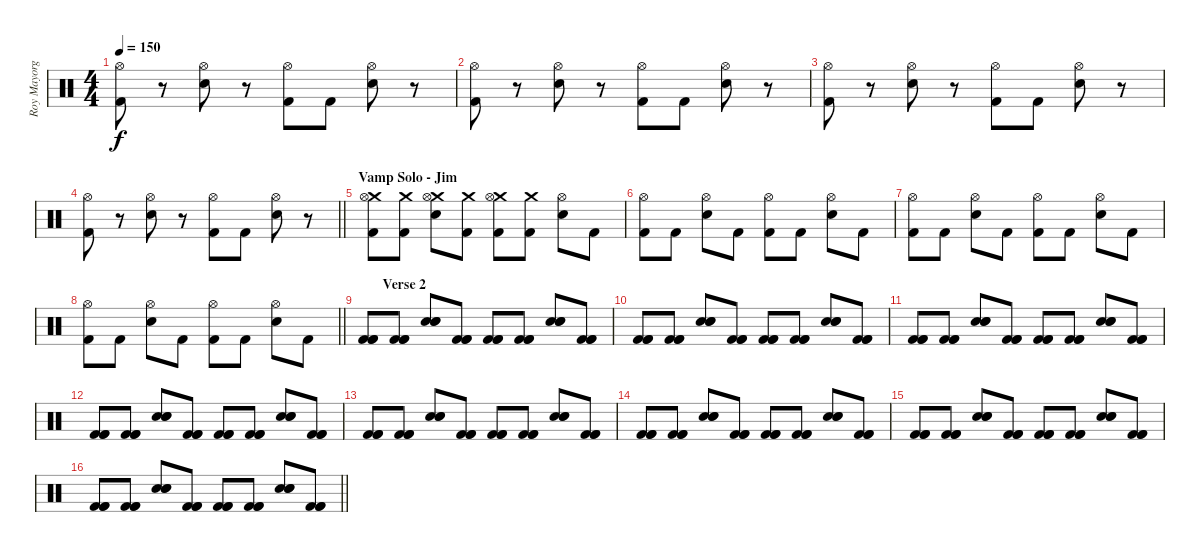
\track ("Roy Mayorga" "Roy Mayorg") {instrument percussion}
\staff {score}
\articulation defaults
\ts (4 4)
\tempo 150
\clef neutral
\ks c
("Hi-Hat (open)" "Kick (hit) 2").8{dy f} r.8 ("Hi-Hat (open)" "Electric Snare (hit)").8 r.8 ("Hi-Hat (open)" "Kick (hit) 2").8 "Kick (hit) 2".8 ("Hi-Hat (open)" "Electric Snare (hit)").8 r.8 |
("Hi-Hat (open)" "Kick (hit) 2").8 r.8 ("Hi-Hat (open)" "Electric Snare (hit)").8 r.8 ("Hi-Hat (open)" "Kick (hit) 2").8 "Kick (hit) 2".8 ("Hi-Hat (open)" "Electric Snare (hit)").8 r.8 |
("Hi-Hat (open)" "Kick (hit) 2").8 r.8 ("Hi-Hat (open)" "Electric Snare (hit)").8 r.8 ("Hi-Hat (open)" "Kick (hit) 2").8 "Kick (hit) 2".8 ("Hi-Hat (open)" "Electric Snare (hit)").8 r.8 |
\barLineRight lightlight
("Hi-Hat (open)" "Kick (hit) 2").8 r.8 ("Hi-Hat (open)" "Electric Snare (hit)").8 r.8 ("Hi-Hat (open)" "Kick (hit) 2").8 "Kick (hit) 2".8 ("Hi-Hat (open)" "Electric Snare (hit)").8 r.8 |
\section ("" "Vamp Solo - Jim")
("Crash medium (hit)" "Hi-Hat (open)" "Kick (hit) 2").8 ("Crash medium (hit)" "Kick (hit) 2").8 ("Crash medium (hit)" "Hi-Hat (open)" "Electric Snare (hit)").8 ("Crash medium (hit)" "Kick (hit) 2").8 ("Crash medium (hit)" "Hi-Hat (open)" "Kick (hit) 2").8 ("Crash medium (hit)" "Kick (hit) 2").8 ("Hi-Hat (open)" "Electric Snare (hit)").8 "Kick (hit) 2".8 |
("Hi-Hat (open)" "Kick (hit) 2").8 "Kick (hit) 2".8 ("Hi-Hat (open)" "Electric Snare (hit)").8 "Kick (hit) 2".8 ("Hi-Hat (open)" "Kick (hit) 2").8 "Kick (hit) 2".8 ("Hi-Hat (open)" "Electric Snare (hit)").8 "Kick (hit) 2".8 |
("Hi-Hat (open)" "Kick (hit) 2").8 "Kick (hit) 2".8 ("Hi-Hat (open)" "Electric Snare (hit)").8 "Kick (hit) 2".8 ("Hi-Hat (open)" "Kick (hit) 2").8 "Kick (hit) 2".8 ("Hi-Hat (open)" "Electric Snare (hit)").8 "Kick (hit) 2".8 |
\barLineRight lightlight
("Hi-Hat (open)" "Kick (hit) 2").8 "Kick (hit) 2".8 ("Hi-Hat (open)" "Electric Snare (hit)").8 "Kick (hit) 2".8 ("Hi-Hat (open)" "Kick (hit) 2").8 "Kick (hit) 2".8 ("Hi-Hat (open)" "Electric Snare (hit)").8 "Kick (hit) 2".8 |
\section ("" "       Verse 2")
("Kick (hit) 2" "Kick (hit) 2" "Kick (hit) 2").8 ("Kick (hit) 2" "Kick (hit) 2" "Kick (hit) 2").8 ("Snare (hit) 2" "Snare (hit) 2" "Snare (hit) 2").8 ("Kick (hit) 2" "Kick (hit) 2" "Kick (hit) 2").8 ("Kick (hit) 2" "Kick (hit) 2" "Kick (hit) 2").8 ("Kick (hit) 2" "Kick (hit) 2" "Kick (hit) 2").8 ("Snare (hit) 2" "Snare (hit) 2" "Snare (hit) 2").8 ("Kick (hit) 2" "Kick (hit) 2" "Kick (hit) 2").8 |
("Kick (hit) 2" "Kick (hit) 2" "Kick (hit) 2").8 ("Kick (hit) 2" "Kick (hit) 2" "Kick (hit) 2").8 ("Snare (hit) 2" "Snare (hit) 2" "Snare (hit) 2").8 ("Kick (hit) 2" "Kick (hit) 2" "Kick (hit) 2").8 ("Kick (hit) 2" "Kick (hit) 2" "Kick (hit) 2").8 ("Kick (hit) 2" "Kick (hit) 2" "Kick (hit) 2").8 ("Snare (hit) 2" "Snare (hit) 2" "Snare (hit) 2").8 ("Kick (hit) 2" "Kick (hit) 2" "Kick (hit) 2").8 |
("Kick (hit) 2" "Kick (hit) 2" "Kick (hit) 2").8 ("Kick (hit) 2" "Kick (hit) 2" "Kick (hit) 2").8 ("Snare (hit) 2" "Snare (hit) 2" "Snare (hit) 2").8 ("Kick (hit) 2" "Kick (hit) 2" "Kick (hit) 2").8 ("Kick (hit) 2" "Kick (hit) 2" "Kick (hit) 2").8 ("Kick (hit) 2" "Kick (hit) 2" "Kick (hit) 2").8 ("Snare (hit) 2" "Snare (hit) 2" "Snare (hit) 2").8 ("Kick (hit) 2" "Kick (hit) 2" "Kick (hit) 2").8 |
("Kick (hit) 2" "Kick (hit) 2" "Kick (hit) 2").8 ("Kick (hit) 2" "Kick (hit) 2" "Kick (hit) 2").8 ("Snare (hit) 2" "Snare (hit) 2" "Snare (hit) 2").8 ("Kick (hit) 2" "Kick (hit) 2" "Kick (hit) 2").8 ("Kick (hit) 2" "Kick (hit) 2" "Kick (hit) 2").8 ("Kick (hit) 2" "Kick (hit) 2" "Kick (hit) 2").8 ("Snare (hit) 2" "Snare (hit) 2" "Snare (hit) 2").8 ("Kick (hit) 2" "Kick (hit) 2" "Kick (hit) 2").8 |
("Kick (hit) 2" "Kick (hit) 2" "Kick (hit) 2").8 ("Kick (hit) 2" "Kick (hit) 2" "Kick (hit) 2").8 ("Snare (hit) 2" "Snare (hit) 2" "Snare (hit) 2").8 ("Kick (hit) 2" "Kick (hit) 2" "Kick (hit) 2").8 ("Kick (hit) 2" "Kick (hit) 2" "Kick (hit) 2").8 ("Kick (hit) 2" "Kick (hit) 2" "Kick (hit) 2").8 ("Snare (hit) 2" "Snare (hit) 2" "Snare (hit) 2").8 ("Kick (hit) 2" "Kick (hit) 2" "Kick (hit) 2").8 |
("Kick (hit) 2" "Kick (hit) 2" "Kick (hit) 2").8 ("Kick (hit) 2" "Kick (hit) 2" "Kick (hit) 2").8 ("Snare (hit) 2" "Snare (hit) 2" "Snare (hit) 2").8 ("Kick (hit) 2" "Kick (hit) 2" "Kick (hit) 2").8 ("Kick (hit) 2" "Kick (hit) 2" "Kick (hit) 2").8 ("Kick (hit) 2" "Kick (hit) 2" "Kick (hit) 2").8 ("Snare (hit) 2" "Snare (hit) 2" "Snare (hit) 2").8 ("Kick (hit) 2" "Kick (hit) 2" "Kick (hit) 2").8 |
("Kick (hit) 2" "Kick (hit) 2" "Kick (hit) 2").8 ("Kick (hit) 2" "Kick (hit) 2" "Kick (hit) 2").8 ("Snare (hit) 2" "Snare (hit) 2" "Snare (hit) 2").8 ("Kick (hit) 2" "Kick (hit) 2" "Kick (hit) 2").8 ("Kick (hit) 2" "Kick (hit) 2" "Kick (hit) 2").8 ("Kick (hit) 2" "Kick (hit) 2" "Kick (hit) 2").8 ("Snare (hit) 2" "Snare (hit) 2" "Snare (hit) 2").8 ("Kick (hit) 2" "Kick (hit) 2" "Kick (hit) 2").8 |
\barLineRight lightlight
("Kick (hit) 2" "Kick (hit) 2" "Kick (hit) 2").8 ("Kick (hit) 2" "Kick (hit) 2" "Kick (hit) 2").8 ("Snare (hit) 2" "Snare (hit) 2" "Snare (hit) 2").8 ("Kick (hit) 2" "Kick (hit) 2" "Kick (hit) 2").8 ("Kick (hit) 2" "Kick (hit) 2" "Kick (hit) 2").8 ("Kick (hit) 2" "Kick (hit) 2" "Kick (hit) 2").8 ("Snare (hit) 2" "Snare (hit) 2" "Snare (hit) 2").8 ("Kick (hit) 2" "Kick (hit) 2" "Kick (hit) 2").8
